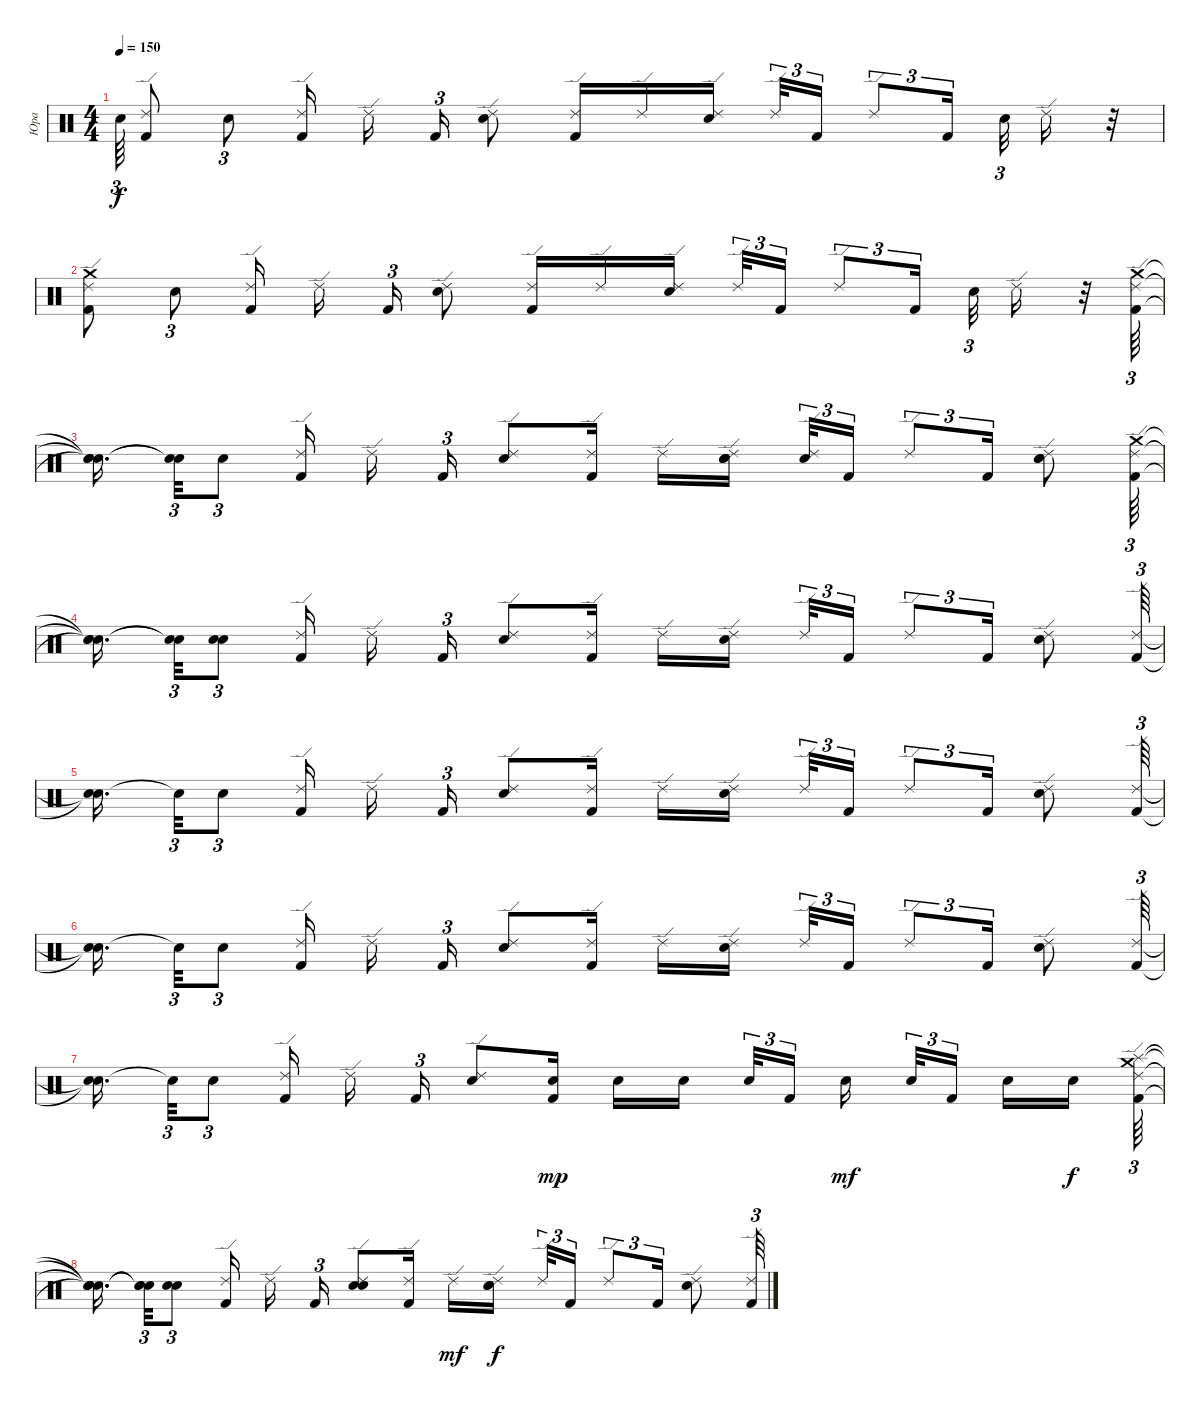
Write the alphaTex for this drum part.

\track ("Юра" "Юра") {instrument percussion}
\staff {score}
\articulation defaults
\ts (4 4)
\tempo 150
\clef neutral
\ks c "Snare (hit)"{t}.64{tu (3 2) dy f}
("Ride (edge) 2" "Kick (hit) 2").8 "Electric Snare (hit)".8{tu (3 2)} ("Ride (edge) 2" "Kick (hit) 2").16 "Ride (edge) 2".16{beam splitsecondary} "Kick (hit) 2".16{tu (3 2)} ("Ride (edge) 2" "Electric Snare (hit)").8 ("Ride (edge) 2" "Kick (hit) 2").16 "Ride (edge) 2".16 ("Ride (edge) 2" "Electric Snare (hit)").16{beam splitsecondary} "Ride (edge) 2".32{tu (3 2)} "Kick (hit) 2".16{tu (3 2)} "Ride (edge) 2".8{tu (3 2)} "Kick (hit) 2".16{tu (3 2) beam splitsecondary} "Electric Snare (hit)".32{tu (3 2)} "Ride (edge) 2".16 r.32 |
("Ride (edge) 2" "Crash medium (hit)" "Kick (hit) 2").8 "Electric Snare (hit)".8{tu (3 2)} ("Kick (hit) 2" "Ride (edge) 2").16 "Ride (edge) 2".16{beam splitsecondary} "Kick (hit) 2".16{tu (3 2)} ("Ride (edge) 2" "Electric Snare (hit)").8 ("Ride (edge) 2" "Kick (hit) 2").16 "Ride (edge) 2".16 ("Ride (edge) 2" "Electric Snare (hit)").16{beam splitsecondary} "Ride (edge) 2".32{tu (3 2)} "Kick (hit) 2".16{tu (3 2)} "Ride (edge) 2".8{tu (3 2)} "Kick (hit) 2".16{tu (3 2) beam splitsecondary} "Electric Snare (hit)".32{tu (3 2)} "Ride (edge) 2".16 r.32 ("Ride (edge) 2" "Crash medium (hit)" "Kick (hit) 2").64{tu (3 2)} |
("Snare (hit)"{t} "Snare (hit)"{t} "Snare (hit)"{t}).16{d beam splitsecondary} ("Snare (hit)"{t} "Snare (hit)"{t}).32{tu (3 2)} "Electric Snare (hit)".8{tu (3 2)} ("Kick (hit) 2" "Ride (edge) 2").16 "Ride (edge) 2".16{beam splitsecondary} "Kick (hit) 2".16{tu (3 2)} ("Ride (edge) 2" "Electric Snare (hit)").8 ("Ride (edge) 2" "Kick (hit) 2").16 "Ride (edge) 2".16 ("Ride (edge) 2" "Electric Snare (hit)" "Electric Snare (hit)" "Electric Snare (hit)").16{beam splitsecondary} ("Ride (edge) 2" "Electric Snare (hit)").32{tu (3 2)} "Kick (hit) 2".16{tu (3 2)} "Ride (edge) 2".8{tu (3 2)} "Kick (hit) 2".16{tu (3 2)} ("Electric Snare (hit)" "Electric Snare (hit)" "Ride (edge) 2").8 ("Ride (edge) 2" "Kick (hit) 2" "Crash medium (hit)").64{tu (3 2)} |
("Snare (hit)"{t} "Snare (hit)"{t} "Snare (hit)"{t}).16{d beam splitsecondary} ("Snare (hit)"{t} "Snare (hit)"{t}).32{tu (3 2)} ("Electric Snare (hit)" "Electric Snare (hit)").8{tu (3 2)} ("Ride (edge) 2" "Kick (hit) 2").16 "Ride (edge) 2".16{beam splitsecondary} "Kick (hit) 2".16{tu (3 2)} ("Ride (edge) 2" "Electric Snare (hit)").8 ("Ride (edge) 2" "Kick (hit) 2").16 "Ride (edge) 2".16 ("Ride (edge) 2" "Electric Snare (hit)").16{beam splitsecondary} "Ride (edge) 2".32{tu (3 2)} "Kick (hit) 2".16{tu (3 2)} "Ride (edge) 2".8{tu (3 2)} "Kick (hit) 2".16{tu (3 2)} ("Ride (edge) 2" "Electric Snare (hit)").8 ("Ride (edge) 2" "Kick (hit) 2").64{tu (3 2)} |
("Snare (hit)"{t} "Snare (hit)"{t}).16{d beam splitsecondary} "Snare (hit)"{t}.32{tu (3 2)} "Electric Snare (hit)".8{tu (3 2)} ("Ride (edge) 2" "Kick (hit) 2").16 "Ride (edge) 2".16{beam splitsecondary} "Kick (hit) 2".16{tu (3 2)} ("Electric Snare (hit)" "Ride (edge) 2").8 ("Ride (edge) 2" "Kick (hit) 2").16 "Ride (edge) 2".16 ("Ride (edge) 2" "Electric Snare (hit)").16{beam splitsecondary} "Ride (edge) 2".32{tu (3 2)} "Kick (hit) 2".16{tu (3 2)} "Ride (edge) 2".8{tu (3 2)} "Kick (hit) 2".16{tu (3 2)} ("Ride (edge) 2" "Electric Snare (hit)").8 ("Kick (hit) 2" "Ride (edge) 2").64{tu (3 2)} |
("Snare (hit)"{t} "Snare (hit)"{t}).16{d beam splitsecondary} "Snare (hit)"{t}.32{tu (3 2)} "Electric Snare (hit)".8{tu (3 2)} ("Kick (hit) 2" "Ride (edge) 2").16 "Ride (edge) 2".16{beam splitsecondary} "Kick (hit) 2".16{tu (3 2)} ("Electric Snare (hit)" "Ride (edge) 2").8 ("Kick (hit) 2" "Ride (edge) 2").16 "Ride (edge) 2".16 ("Electric Snare (hit)" "Ride (edge) 2").16{beam splitsecondary} "Ride (edge) 2".32{tu (3 2)} "Kick (hit) 2".16{tu (3 2)} "Ride (edge) 2".8{tu (3 2)} "Kick (hit) 2".16{tu (3 2)} ("Electric Snare (hit)" "Ride (edge) 2").8 ("Kick (hit) 2" "Ride (edge) 2").64{tu (3 2)} |
("Snare (hit)"{t} "Snare (hit)"{t}).16{d beam splitsecondary} "Snare (hit)"{t}.32{tu (3 2)} "Electric Snare (hit)".8{tu (3 2)} ("Kick (hit) 2" "Ride (edge) 2").16 "Ride (edge) 2".16{beam splitsecondary} "Kick (hit) 2".16{tu (3 2)} ("Electric Snare (hit)" "Ride (edge) 2").8 ("Electric Snare (hit)" "Kick (hit) 2").16{dy mp} "Electric Snare (hit)".16 "Electric Snare (hit)".16{beam splitsecondary} "Electric Snare (hit)".32{tu (3 2)} "Kick (hit) 2".16{tu (3 2) beam splitsecondary} "Electric Snare (hit)".16{dy mf} "Electric Snare (hit)".32{tu (3 2)} "Kick (hit) 2".16{tu (3 2) beam splitsecondary} "Electric Snare (hit)".16 "Electric Snare (hit)".16{dy f beam splitsecondary} ("Kick (hit) 2" "Splash (hit)" "Ride (edge) 2" "Crash medium (hit)").64{tu (3 2)} |
("Snare (hit)"{t} "Snare (hit)"{t} "Snare (hit)"{t} "Snare (hit)"{t}).16{d beam splitsecondary} ("Snare (hit)"{t} "Snare (hit)"{t} "Snare (hit)"{t}).32{tu (3 2)} ("Electric Snare (hit)" "Electric Snare (hit)").8{tu (3 2)} ("Kick (hit) 2" "Ride (edge) 2").16 "Ride (edge) 2".16{beam splitsecondary} "Kick (hit) 2".16{tu (3 2)} ("Electric Snare (hit)" "Electric Snare (hit)" "Ride (edge) 2").8 ("Kick (hit) 2" "Ride (edge) 2").16 "Ride (edge) 2".16{dy mf} ("Electric Snare (hit)" "Electric Snare (hit)" "Ride (edge) 2").16{dy f beam splitsecondary} "Ride (edge) 2".32{tu (3 2)} "Kick (hit) 2".16{tu (3 2)} "Ride (edge) 2".8{tu (3 2)} "Kick (hit) 2".16{tu (3 2)} ("Electric Snare (hit)" "Ride (edge) 2").8 ("Ride (edge) 2" "Kick (hit) 2").64{tu (3 2)}
